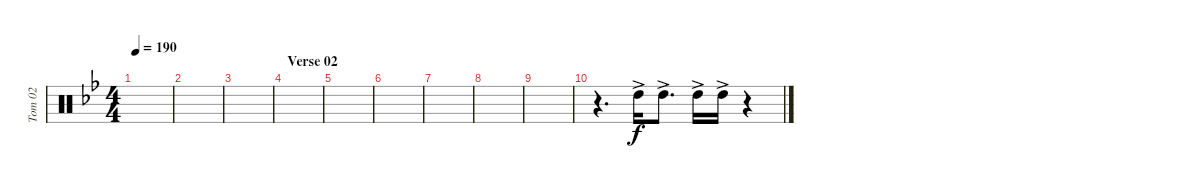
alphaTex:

\track ("Tom 02" "Tom 02") {instrument percussion}
\staff {score}
\articulation defaults
\ts (4 4)
\tempo 190
\clef neutral
\ks bb
|
|
|
\section ("" "Verse 02")
|
|
|
|
|
|
r.4{d} "High Tom (hit)"{ac}.16 "High Tom (hit)"{ac}.8{d} "High Tom (hit)"{ac}.16 "High Tom (hit)"{ac}.16 r.4
